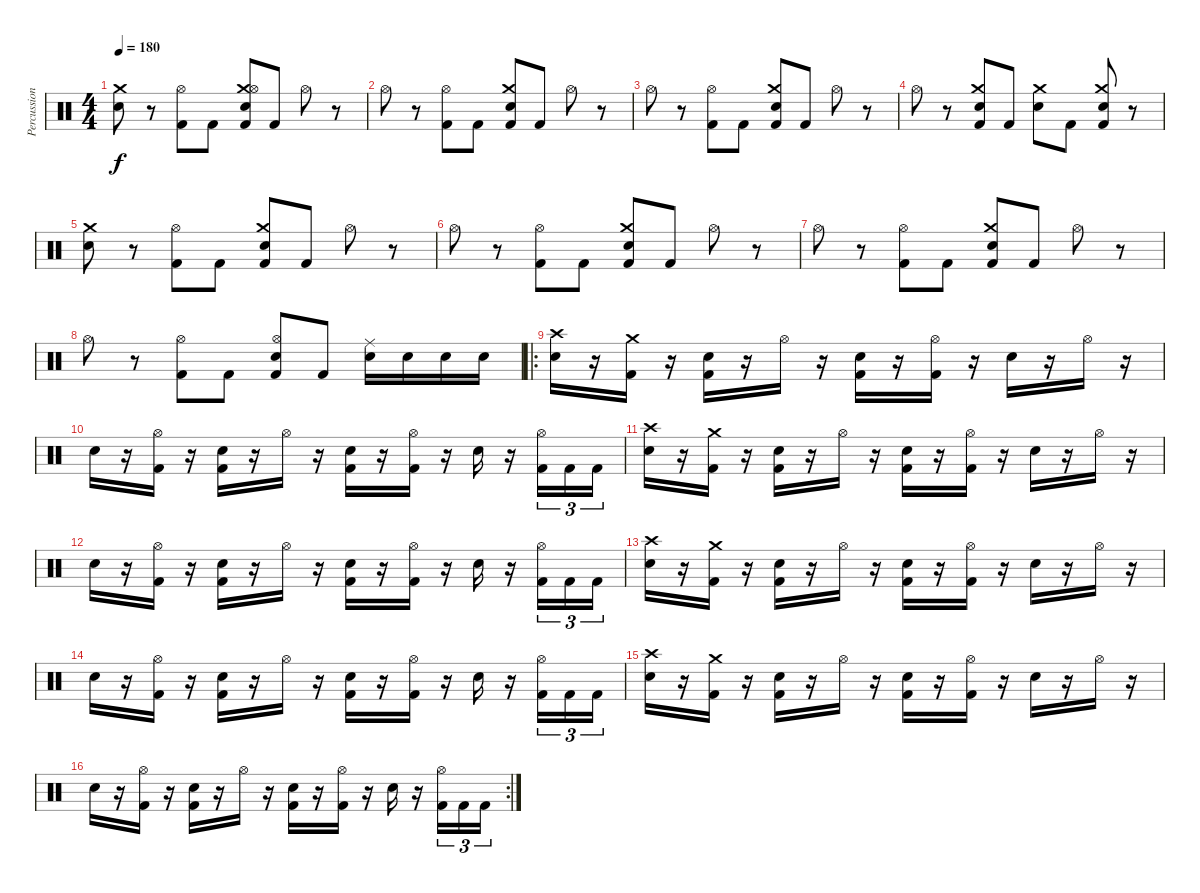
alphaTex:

\track ("Percussions" "Percussion") {instrument percussion}
\staff {score}
\articulation defaults
\ts (4 4)
\tempo 180
\clef neutral
\ks c
("Snare (hit) 2" "Crash medium (hit)").8{dy f} r.8 ("Hi-Hat (open)" "Kick (hit) 2").8 "Kick (hit) 2".8 ("Snare (hit) 2" "Crash medium (hit)" "Hi-Hat (open)" "Kick (hit) 2").8 "Kick (hit) 2".8 "Hi-Hat (open)".8 r.8 |
"Hi-Hat (open)".8 r.8 ("Hi-Hat (open)" "Kick (hit) 2").8 "Kick (hit) 2".8 ("Snare (hit) 2" "Crash medium (hit)" "Kick (hit) 2").8 "Kick (hit) 2".8 "Hi-Hat (open)".8 r.8 |
"Hi-Hat (open)".8 r.8 ("Hi-Hat (open)" "Kick (hit) 2").8 "Kick (hit) 2".8 ("Snare (hit) 2" "Crash medium (hit)" "Kick (hit) 2").8 "Kick (hit) 2".8 "Hi-Hat (open)".8 r.8 |
"Hi-Hat (open)".8 r.8 ("Snare (hit) 2" "Crash medium (hit)" "Kick (hit) 2").8 "Kick (hit) 2".8 ("Snare (hit) 2" "Crash medium (hit)").8 "Kick (hit) 2".8 ("Snare (hit) 2" "Crash medium (hit)" "Kick (hit) 2").8 r.8 |
("Snare (hit) 2" "Crash medium (hit)").8 r.8 ("Hi-Hat (open)" "Kick (hit) 2").8 "Kick (hit) 2".8 ("Snare (hit) 2" "Crash medium (hit)" "Kick (hit) 2").8 "Kick (hit) 2".8 "Hi-Hat (open)".8 r.8 |
"Hi-Hat (open)".8 r.8 ("Hi-Hat (open)" "Kick (hit) 2").8 "Kick (hit) 2".8 ("Snare (hit) 2" "Crash medium (hit)" "Kick (hit) 2").8 "Kick (hit) 2".8 "Hi-Hat (open)".8 r.8 |
"Hi-Hat (open)".8 r.8 ("Hi-Hat (open)" "Kick (hit) 2").8 "Kick (hit) 2".8 ("Snare (hit) 2" "Crash medium (hit)" "Kick (hit) 2").8 "Kick (hit) 2".8 "Hi-Hat (open)".8 r.8 |
"Hi-Hat (open)".8 r.8 ("Hi-Hat (open)" "Kick (hit) 2").8 "Kick (hit) 2".8 ("Snare (hit) 2" "Hi-Hat (open)" "Kick (hit) 2").8 "Kick (hit) 2".8 ("Snare (hit) 2" "Ride (middle)").16 "Snare (hit) 2".16 "Snare (hit) 2".16 "Snare (hit) 2".16 |
\ro
("Crash high (hit)" "Snare (hit) 2").16 r.16 ("Crash medium (hit)" "Kick (hit) 2").16 r.16 ("Snare (hit) 2" "Kick (hit) 2").16 r.16 "Hi-Hat (open)".16 r.16 ("Snare (hit) 2" "Kick (hit) 2").16 r.16 ("Hi-Hat (open)" "Kick (hit) 2").16 r.16 "Snare (hit) 2".16 r.16 "Hi-Hat (open)".16 r.16 |
"Snare (hit) 2".16 r.16 ("Hi-Hat (open)" "Kick (hit) 2").16 r.16 ("Snare (hit) 2" "Kick (hit) 2").16 r.16 "Hi-Hat (open)".16 r.16 ("Snare (hit) 2" "Kick (hit) 2").16 r.16 ("Hi-Hat (open)" "Kick (hit) 2").16 r.16 "Snare (hit) 2".16 r.16 ("Hi-Hat (open)" "Kick (hit) 2").16{tu (3 2)} "Kick (hit) 2".16{tu (3 2)} "Kick (hit) 2".16{tu (3 2)} |
("Crash high (hit)" "Snare (hit) 2").16 r.16 ("Crash medium (hit)" "Kick (hit) 2").16 r.16 ("Snare (hit) 2" "Kick (hit) 2").16 r.16 "Hi-Hat (open)".16 r.16 ("Snare (hit) 2" "Kick (hit) 2").16 r.16 ("Hi-Hat (open)" "Kick (hit) 2").16 r.16 "Snare (hit) 2".16 r.16 "Hi-Hat (open)".16 r.16 |
"Snare (hit) 2".16 r.16 ("Hi-Hat (open)" "Kick (hit) 2").16 r.16 ("Snare (hit) 2" "Kick (hit) 2").16 r.16 "Hi-Hat (open)".16 r.16 ("Snare (hit) 2" "Kick (hit) 2").16 r.16 ("Hi-Hat (open)" "Kick (hit) 2").16 r.16 "Snare (hit) 2".16 r.16 ("Hi-Hat (open)" "Kick (hit) 2").16{tu (3 2)} "Kick (hit) 2".16{tu (3 2)} "Kick (hit) 2".16{tu (3 2)} |
("Crash high (hit)" "Snare (hit) 2").16 r.16 ("Crash medium (hit)" "Kick (hit) 2").16 r.16 ("Snare (hit) 2" "Kick (hit) 2").16 r.16 "Hi-Hat (open)".16 r.16 ("Snare (hit) 2" "Kick (hit) 2").16 r.16 ("Hi-Hat (open)" "Kick (hit) 2").16 r.16 "Snare (hit) 2".16 r.16 "Hi-Hat (open)".16 r.16 |
"Snare (hit) 2".16 r.16 ("Hi-Hat (open)" "Kick (hit) 2").16 r.16 ("Snare (hit) 2" "Kick (hit) 2").16 r.16 "Hi-Hat (open)".16 r.16 ("Snare (hit) 2" "Kick (hit) 2").16 r.16 ("Hi-Hat (open)" "Kick (hit) 2").16 r.16 "Snare (hit) 2".16 r.16 ("Hi-Hat (open)" "Kick (hit) 2").16{tu (3 2)} "Kick (hit) 2".16{tu (3 2)} "Kick (hit) 2".16{tu (3 2)} |
("Crash high (hit)" "Snare (hit) 2").16 r.16 ("Crash medium (hit)" "Kick (hit) 2").16 r.16 ("Snare (hit) 2" "Kick (hit) 2").16 r.16 "Hi-Hat (open)".16 r.16 ("Snare (hit) 2" "Kick (hit) 2").16 r.16 ("Hi-Hat (open)" "Kick (hit) 2").16 r.16 "Snare (hit) 2".16 r.16 "Hi-Hat (open)".16 r.16 |
\rc 2 "Snare (hit) 2".16
r.16 ("Hi-Hat (open)" "Kick (hit) 2").16 r.16 ("Snare (hit) 2" "Kick (hit) 2").16 r.16 "Hi-Hat (open)".16 r.16 ("Snare (hit) 2" "Kick (hit) 2").16 r.16 ("Hi-Hat (open)" "Kick (hit) 2").16 r.16 "Snare (hit) 2".16 r.16 ("Hi-Hat (open)" "Kick (hit) 2").16{tu (3 2)} "Kick (hit) 2".16{tu (3 2)} "Kick (hit) 2".16{tu (3 2)}
